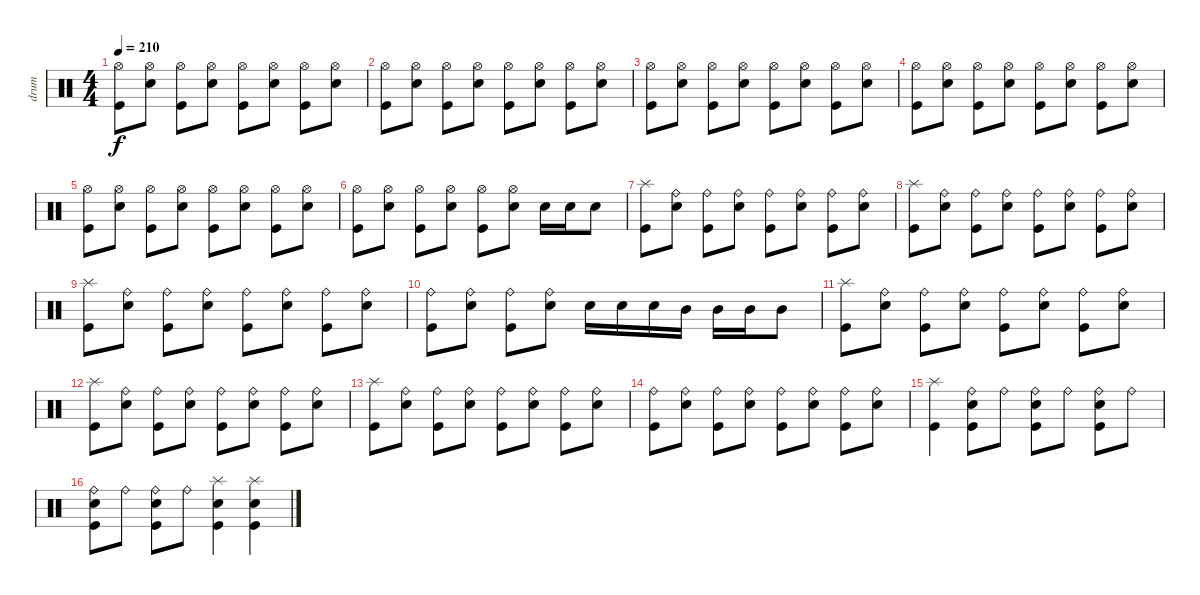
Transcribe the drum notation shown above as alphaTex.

\track ("drum" "drum") {instrument percussion}
\staff {score}
\articulation defaults
\ts (4 4)
\tempo 210
\clef neutral
\ks c
("Kick (hit)" "Hi-Hat (open)").8{dy f} ("Electric Snare (hit)" "Hi-Hat (open)").8 ("Kick (hit)" "Hi-Hat (open)").8 ("Electric Snare (hit)" "Hi-Hat (open)").8 ("Kick (hit)" "Hi-Hat (open)").8 ("Electric Snare (hit)" "Hi-Hat (open)").8 ("Kick (hit)" "Hi-Hat (open)").8 ("Electric Snare (hit)" "Hi-Hat (open)").8 |
("Kick (hit)" "Hi-Hat (open)").8 ("Electric Snare (hit)" "Hi-Hat (open)").8 ("Kick (hit)" "Hi-Hat (open)").8 ("Electric Snare (hit)" "Hi-Hat (open)").8 ("Kick (hit)" "Hi-Hat (open)").8 ("Electric Snare (hit)" "Hi-Hat (open)").8 ("Kick (hit)" "Hi-Hat (open)").8 ("Electric Snare (hit)" "Hi-Hat (open)").8 |
("Kick (hit)" "Hi-Hat (open)").8 ("Electric Snare (hit)" "Hi-Hat (open)").8 ("Kick (hit)" "Hi-Hat (open)").8 ("Electric Snare (hit)" "Hi-Hat (open)").8 ("Kick (hit)" "Hi-Hat (open)").8 ("Electric Snare (hit)" "Hi-Hat (open)").8 ("Kick (hit)" "Hi-Hat (open)").8 ("Electric Snare (hit)" "Hi-Hat (open)").8 |
("Kick (hit)" "Hi-Hat (open)").8 ("Electric Snare (hit)" "Hi-Hat (open)").8 ("Kick (hit)" "Hi-Hat (open)").8 ("Electric Snare (hit)" "Hi-Hat (open)").8 ("Kick (hit)" "Hi-Hat (open)").8 ("Electric Snare (hit)" "Hi-Hat (open)").8 ("Kick (hit)" "Hi-Hat (open)").8 ("Electric Snare (hit)" "Hi-Hat (open)").8 |
("Kick (hit)" "Hi-Hat (open)").8 ("Electric Snare (hit)" "Hi-Hat (open)").8 ("Kick (hit)" "Hi-Hat (open)").8 ("Electric Snare (hit)" "Hi-Hat (open)").8 ("Kick (hit)" "Hi-Hat (open)").8 ("Electric Snare (hit)" "Hi-Hat (open)").8 ("Kick (hit)" "Hi-Hat (open)").8 ("Electric Snare (hit)" "Hi-Hat (open)").8 |
("Kick (hit)" "Hi-Hat (open)").8 ("Electric Snare (hit)" "Hi-Hat (open)").8 ("Kick (hit)" "Hi-Hat (open)").8 ("Electric Snare (hit)" "Hi-Hat (open)").8 ("Kick (hit)" "Hi-Hat (open)").8 ("Electric Snare (hit)" "Hi-Hat (open)").8 "Electric Snare (hit)".16 "Electric Snare (hit)".16 "Electric Snare (hit)".8 |
("Kick (hit)" "Splash (hit)").8 ("Electric Snare (hit)" "Ride (bell)").8 ("Kick (hit)" "Ride (bell)").8 ("Electric Snare (hit)" "Ride (bell)").8 ("Kick (hit)" "Ride (bell)").8 ("Electric Snare (hit)" "Ride (bell)").8 ("Kick (hit)" "Ride (bell)").8 ("Electric Snare (hit)" "Ride (bell)").8 |
("Kick (hit)" "Splash (hit)").8 ("Electric Snare (hit)" "Ride (bell)").8 ("Kick (hit)" "Ride (bell)").8 ("Electric Snare (hit)" "Ride (bell)").8 ("Kick (hit)" "Ride (bell)").8 ("Electric Snare (hit)" "Ride (bell)").8 ("Kick (hit)" "Ride (bell)").8 ("Electric Snare (hit)" "Ride (bell)").8 |
("Kick (hit)" "Splash (hit)").8 ("Electric Snare (hit)" "Ride (bell)").8 ("Kick (hit)" "Ride (bell)").8 ("Electric Snare (hit)" "Ride (bell)").8 ("Kick (hit)" "Ride (bell)").8 ("Electric Snare (hit)" "Ride (bell)").8 ("Kick (hit)" "Ride (bell)").8 ("Electric Snare (hit)" "Ride (bell)").8 |
("Kick (hit)" "Ride (bell)").8 ("Electric Snare (hit)" "Ride (bell)").8 ("Kick (hit)" "Ride (bell)").8 ("Electric Snare (hit)" "Ride (bell)").8 "Electric Snare (hit)".16 "Electric Snare (hit)".16 "Electric Snare (hit)".16 "Mid Tom (hit)".16 "Mid Tom (hit)".16 "Mid Tom (hit)".16 "Mid Tom (hit)".8 |
("Kick (hit)" "Splash (hit)").8 ("Electric Snare (hit)" "Ride (bell)").8 ("Kick (hit)" "Ride (bell)").8 ("Electric Snare (hit)" "Ride (bell)").8 ("Kick (hit)" "Ride (bell)").8 ("Electric Snare (hit)" "Ride (bell)").8 ("Kick (hit)" "Ride (bell)").8 ("Electric Snare (hit)" "Ride (bell)").8 |
("Kick (hit)" "Splash (hit)").8 ("Electric Snare (hit)" "Ride (bell)").8 ("Kick (hit)" "Ride (bell)").8 ("Electric Snare (hit)" "Ride (bell)").8 ("Kick (hit)" "Ride (bell)").8 ("Electric Snare (hit)" "Ride (bell)").8 ("Kick (hit)" "Ride (bell)").8 ("Electric Snare (hit)" "Ride (bell)").8 |
("Kick (hit)" "Splash (hit)").8 ("Electric Snare (hit)" "Ride (bell)").8 ("Kick (hit)" "Ride (bell)").8 ("Electric Snare (hit)" "Ride (bell)").8 ("Kick (hit)" "Ride (bell)").8 ("Electric Snare (hit)" "Ride (bell)").8 ("Kick (hit)" "Ride (bell)").8 ("Electric Snare (hit)" "Ride (bell)").8 |
("Kick (hit)" "Ride (bell)").8 ("Electric Snare (hit)" "Ride (bell)").8 ("Kick (hit)" "Ride (bell)").8 ("Electric Snare (hit)" "Ride (bell)").8 ("Kick (hit)" "Ride (bell)").8 ("Electric Snare (hit)" "Ride (bell)").8 ("Kick (hit)" "Ride (bell)").8 ("Electric Snare (hit)" "Ride (bell)").8 |
("Kick (hit)" "Splash (hit)").4 ("Kick (hit)" "Electric Snare (hit)" "Ride (bell)").8 "Ride (bell)".8 ("Kick (hit)" "Electric Snare (hit)" "Ride (bell)").8 "Ride (bell)".8 ("Kick (hit)" "Electric Snare (hit)" "Ride (bell)").8 "Ride (bell)".8 |
("Kick (hit)" "Electric Snare (hit)" "Ride (bell)").8 "Ride (bell)".8 ("Kick (hit)" "Electric Snare (hit)" "Ride (bell)").8 "Ride (bell)".8 ("Kick (hit)" "Electric Snare (hit)" "Splash (hit)").4 ("Kick (hit)" "Electric Snare (hit)" "Splash (hit)").4
